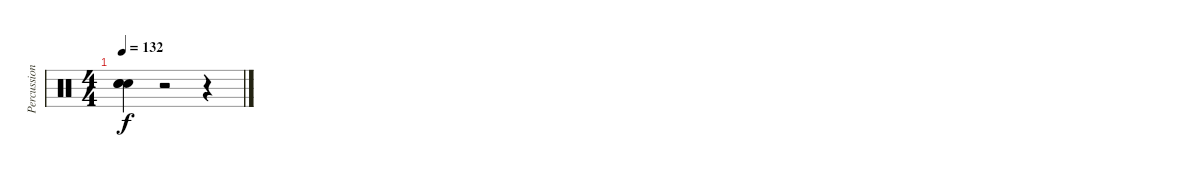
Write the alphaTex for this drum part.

\track ("Percussion" "Percussion") {instrument percussion}
\staff {score}
\articulation defaults
\ts (4 4)
\tempo 132
\clef neutral
\ks c
("Snare (hit)"{t} "Snare (hit)"{t} "Snare (hit)"{t}).4{dy f} r.2 r.4
